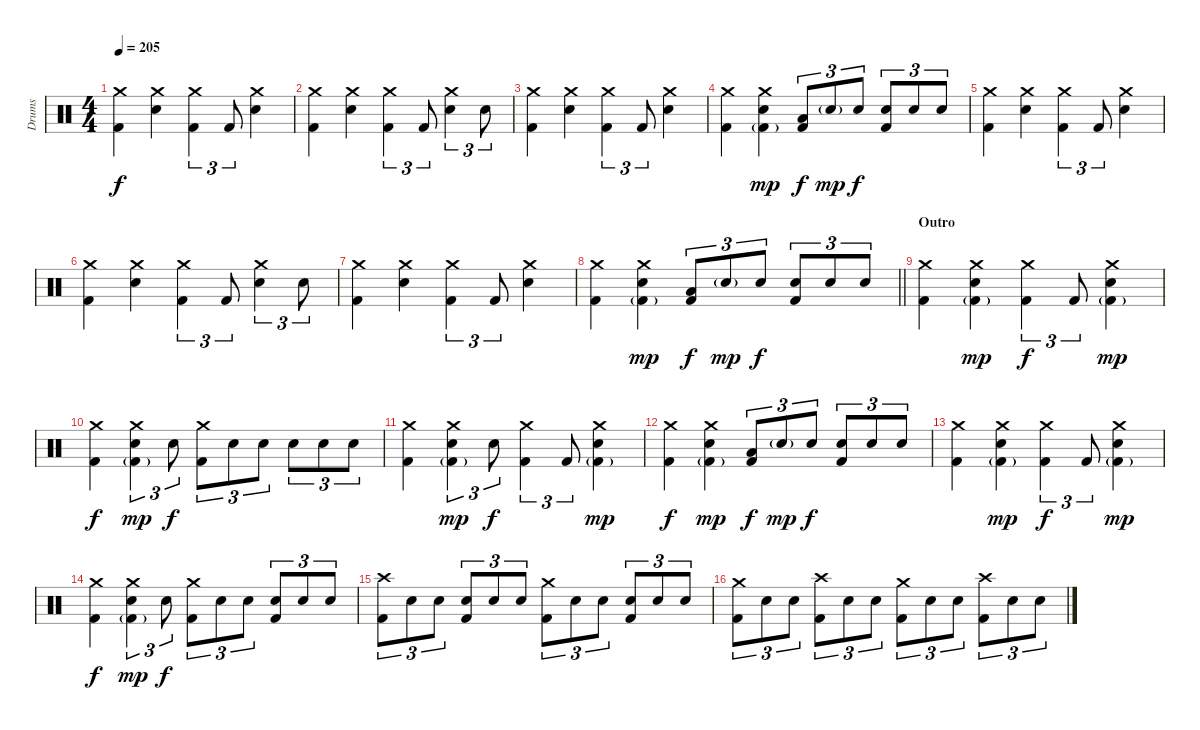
\track ("Drums" "Drums") {instrument percussion}
\staff {score}
\articulation defaults
\ts (4 4)
\tempo 205
\clef neutral
\ks c
("Crash medium (hit)" "Kick (hit) 2").4{dy f} ("Crash medium (hit)" "Electric Snare (hit)").4 ("Crash medium (hit)" "Kick (hit) 2").4{tu (3 2)} "Kick (hit) 2".8{tu (3 2)} ("Crash medium (hit)" "Electric Snare (hit)").4 |
("Crash medium (hit)" "Kick (hit) 2").4 ("Crash medium (hit)" "Electric Snare (hit)").4 ("Crash medium (hit)" "Kick (hit) 2").4{tu (3 2)} "Kick (hit) 2".8{tu (3 2)} ("Crash medium (hit)" "Electric Snare (hit)").4{tu (3 2)} "Electric Snare (hit)".8{tu (3 2)} |
("Crash medium (hit)" "Kick (hit) 2").4 ("Crash medium (hit)" "Electric Snare (hit)").4 ("Crash medium (hit)" "Kick (hit) 2").4{tu (3 2)} "Kick (hit) 2".8{tu (3 2)} ("Crash medium (hit)" "Electric Snare (hit)").4 |
("Crash medium (hit)" "Kick (hit) 2").4 ("Crash medium (hit)" "Electric Snare (hit)" "Kick (hit) 2"{g}).4{dy mp} ("Low Tom (hit)" "Kick (hit) 2").8{tu (3 2) dy f} "Electric Snare (hit)"{g}.8{tu (3 2) dy mp} "Electric Snare (hit)".8{tu (3 2) dy f} ("Electric Snare (hit)" "Kick (hit) 2").8{tu (3 2)} "Electric Snare (hit)".8{tu (3 2)} "Electric Snare (hit)".8{tu (3 2)} |
("Crash medium (hit)" "Kick (hit) 2").4 ("Crash medium (hit)" "Electric Snare (hit)").4 ("Crash medium (hit)" "Kick (hit) 2").4{tu (3 2)} "Kick (hit) 2".8{tu (3 2)} ("Crash medium (hit)" "Electric Snare (hit)").4 |
("Crash medium (hit)" "Kick (hit) 2").4 ("Crash medium (hit)" "Electric Snare (hit)").4 ("Crash medium (hit)" "Kick (hit) 2").4{tu (3 2)} "Kick (hit) 2".8{tu (3 2)} ("Crash medium (hit)" "Electric Snare (hit)").4{tu (3 2)} "Electric Snare (hit)".8{tu (3 2)} |
("Crash medium (hit)" "Kick (hit) 2").4 ("Crash medium (hit)" "Electric Snare (hit)").4 ("Crash medium (hit)" "Kick (hit) 2").4{tu (3 2)} "Kick (hit) 2".8{tu (3 2)} ("Crash medium (hit)" "Electric Snare (hit)").4 |
\barLineRight lightlight
("Crash medium (hit)" "Kick (hit) 2").4 ("Crash medium (hit)" "Electric Snare (hit)" "Kick (hit) 2"{g}).4{dy mp} ("Low Tom (hit)" "Kick (hit) 2").8{tu (3 2) dy f} "Electric Snare (hit)"{g}.8{tu (3 2) dy mp} "Electric Snare (hit)".8{tu (3 2) dy f} ("Electric Snare (hit)" "Kick (hit) 2").8{tu (3 2)} "Electric Snare (hit)".8{tu (3 2)} "Electric Snare (hit)".8{tu (3 2)} |
\section ("" "Outro")
("Crash medium (hit)" "Kick (hit) 2").4 ("Crash medium (hit)" "Electric Snare (hit)" "Kick (hit) 2"{g}).4{dy mp} ("Crash medium (hit)" "Kick (hit) 2").4{tu (3 2) dy f} "Kick (hit) 2".8{tu (3 2)} ("Crash medium (hit)" "Electric Snare (hit)" "Kick (hit) 2"{g}).4{dy mp} |
("Crash medium (hit)" "Kick (hit) 2").4{dy f} ("Crash medium (hit)" "Electric Snare (hit)" "Kick (hit) 2"{g}).4{tu (3 2) dy mp} "Electric Snare (hit)".8{tu (3 2) dy f} ("Crash medium (hit)" "Kick (hit) 2").8{tu (3 2)} "Electric Snare (hit)".8{tu (3 2)} "Electric Snare (hit)".8{tu (3 2)} "Electric Snare (hit)".8{tu (3 2)} "Electric Snare (hit)".8{tu (3 2)} "Electric Snare (hit)".8{tu (3 2)} |
("Crash medium (hit)" "Kick (hit) 2").4 ("Crash medium (hit)" "Electric Snare (hit)" "Kick (hit) 2"{g}).4{tu (3 2) dy mp} "Electric Snare (hit)".8{tu (3 2) dy f} ("Crash medium (hit)" "Kick (hit) 2").4{tu (3 2)} "Kick (hit) 2".8{tu (3 2)} ("Crash medium (hit)" "Electric Snare (hit)" "Kick (hit) 2"{g}).4{dy mp} |
("Crash medium (hit)" "Kick (hit) 2").4{dy f} ("Crash medium (hit)" "Electric Snare (hit)" "Kick (hit) 2"{g}).4{dy mp} ("Low Tom (hit)" "Kick (hit) 2").8{tu (3 2) dy f} "Electric Snare (hit)"{g}.8{tu (3 2) dy mp} "Electric Snare (hit)".8{tu (3 2) dy f} ("Electric Snare (hit)" "Kick (hit) 2").8{tu (3 2)} "Electric Snare (hit)".8{tu (3 2)} "Electric Snare (hit)".8{tu (3 2)} |
("Crash medium (hit)" "Kick (hit) 2").4 ("Crash medium (hit)" "Electric Snare (hit)" "Kick (hit) 2"{g}).4{dy mp} ("Crash medium (hit)" "Kick (hit) 2").4{tu (3 2) dy f} "Kick (hit) 2".8{tu (3 2)} ("Crash medium (hit)" "Electric Snare (hit)" "Kick (hit) 2"{g}).4{dy mp} |
("Crash medium (hit)" "Kick (hit) 2").4{dy f} ("Crash medium (hit)" "Electric Snare (hit)" "Kick (hit) 2"{g}).4{tu (3 2) dy mp} "Electric Snare (hit)".8{tu (3 2) dy f} ("Crash medium (hit)" "Kick (hit) 2").8{tu (3 2)} "Electric Snare (hit)".8{tu (3 2)} "Electric Snare (hit)".8{tu (3 2)} ("Electric Snare (hit)" "Kick (hit) 2").8{tu (3 2)} "Electric Snare (hit)".8{tu (3 2)} "Electric Snare (hit)".8{tu (3 2)} |
("Crash high (hit)" "Kick (hit) 2").8{tu (3 2)} "Electric Snare (hit)".8{tu (3 2)} "Electric Snare (hit)".8{tu (3 2)} ("Electric Snare (hit)" "Kick (hit) 2").8{tu (3 2)} "Electric Snare (hit)".8{tu (3 2)} "Electric Snare (hit)".8{tu (3 2)} ("Crash medium (hit)" "Kick (hit) 2").8{tu (3 2)} "Electric Snare (hit)".8{tu (3 2)} "Electric Snare (hit)".8{tu (3 2)} ("Electric Snare (hit)" "Kick (hit) 2").8{tu (3 2)} "Electric Snare (hit)".8{tu (3 2)} "Electric Snare (hit)".8{tu (3 2)} |
("Crash medium (hit)" "Kick (hit) 2").8{tu (3 2)} "Electric Snare (hit)".8{tu (3 2)} "Electric Snare (hit)".8{tu (3 2)} ("Crash high (hit)" "Kick (hit) 2").8{tu (3 2)} "Electric Snare (hit)".8{tu (3 2)} "Electric Snare (hit)".8{tu (3 2)} ("Crash medium (hit)" "Kick (hit) 2").8{tu (3 2)} "Electric Snare (hit)".8{tu (3 2)} "Electric Snare (hit)".8{tu (3 2)} ("Crash high (hit)" "Kick (hit) 2").8{tu (3 2)} "Electric Snare (hit)".8{tu (3 2)} "Electric Snare (hit)".8{tu (3 2)}
